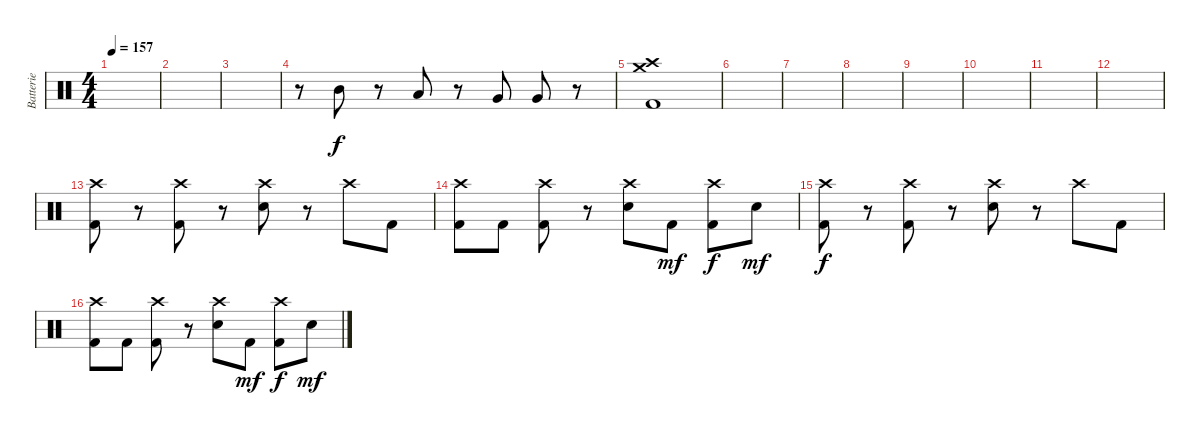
\track ("Batterie" "Batterie") {instrument percussion}
\staff {score}
\articulation defaults
\ts (4 4)
\tempo 157
\clef neutral
\ks c
|
|
|
r.8 "Mid Tom (hit)".8{dy f} r.8 "Low Tom (hit)".8 r.8 "Very Low Tom (hit)".8 "Very Low Tom (hit)".8 r.8 |
("Kick (hit) 2" "Crash medium (hit)" "Crash high (hit)").1 |
|
|
|
|
|
|
|
("Kick (hit) 2" "Crash high (hit)").8 r.8 ("Kick (hit) 2" "Crash high (hit)").8 r.8 ("Electric Snare (hit)" "Crash high (hit)").8 r.8 "Crash high (hit)".8 "Kick (hit) 2".8 |
("Kick (hit) 2" "Crash high (hit)").8 "Kick (hit) 2".8 ("Kick (hit) 2" "Crash high (hit)").8 r.8 ("Electric Snare (hit)" "Crash high (hit)").8 "Kick (hit) 2".8{dy mf} ("Kick (hit) 2" "Crash high (hit)").8{dy f} "Electric Snare (hit)".8{dy mf} |
("Kick (hit) 2" "Crash high (hit)").8{dy f} r.8 ("Kick (hit) 2" "Crash high (hit)").8 r.8 ("Electric Snare (hit)" "Crash high (hit)").8 r.8 "Crash high (hit)".8 "Kick (hit) 2".8 |
("Kick (hit) 2" "Crash high (hit)").8 "Kick (hit) 2".8 ("Kick (hit) 2" "Crash high (hit)").8 r.8 ("Electric Snare (hit)" "Crash high (hit)").8 "Kick (hit) 2".8{dy mf} ("Kick (hit) 2" "Crash high (hit)").8{dy f} "Electric Snare (hit)".8{dy mf}
